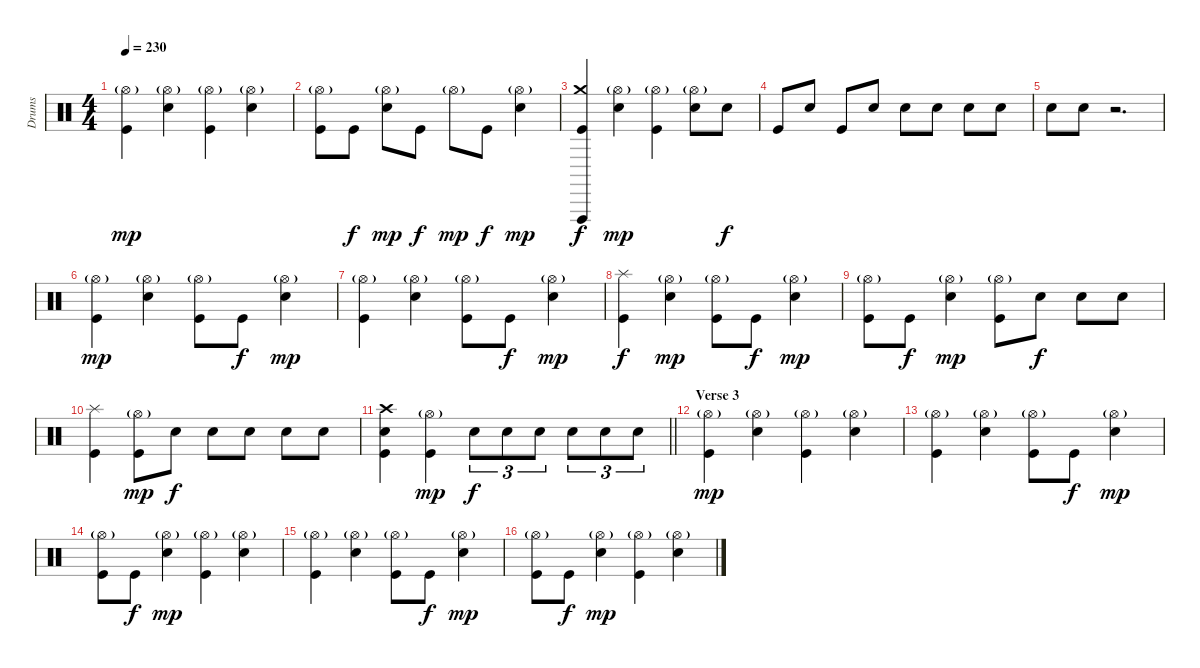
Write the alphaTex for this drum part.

\track ("Drums" "Drums") {instrument percussion}
\staff {score}
\articulation defaults
\ts (4 4)
\tempo 230
\clef neutral
\ks c
("Hi-Hat (open)"{g} "Kick (hit)").4{dy mp} ("Hi-Hat (open)"{g} "Snare (hit) 2").4 ("Hi-Hat (open)"{g} "Kick (hit)").4 ("Hi-Hat (open)"{g} "Snare (hit) 2").4 |
("Hi-Hat (open)"{g} "Kick (hit)").8 "Kick (hit)".8{dy f} ("Hi-Hat (open)"{g} "Snare (hit) 2").8{dy mp} "Kick (hit)".8{dy f} "Hi-Hat (open)"{g}.8{dy mp} "Kick (hit)".8{dy f} ("Hi-Hat (open)"{g} "Snare (hit) 2").4{dy mp} |
("Crash medium (hit)" "Vibraslap (hit)" "Kick (hit)").4{dy f} ("Hi-Hat (open)"{g} "Snare (hit) 2").4{dy mp} ("Hi-Hat (open)"{g} "Kick (hit)").4 ("Hi-Hat (open)"{g} "Snare (hit) 2").8 "Snare (hit) 2".8{dy f} |
"Kick (hit)".8 "Snare (hit) 2".8 "Kick (hit)".8 "Snare (hit) 2".8 "Snare (hit) 2".8 "Snare (hit) 2".8 "Snare (hit) 2".8 "Snare (hit) 2".8 |
"Snare (hit) 2".8 "Snare (hit) 2".8 r.2{d} |
("Hi-Hat (open)"{g} "Kick (hit)").4{dy mp} ("Hi-Hat (open)"{g} "Snare (hit) 2").4 ("Hi-Hat (open)"{g} "Kick (hit)").8 "Kick (hit)".8{dy f} ("Hi-Hat (open)"{g} "Snare (hit) 2").4{dy mp} |
("Hi-Hat (open)"{g} "Kick (hit)").4 ("Hi-Hat (open)"{g} "Snare (hit) 2").4 ("Hi-Hat (open)"{g} "Kick (hit)").8 "Kick (hit)".8{dy f} ("Hi-Hat (open)"{g} "Snare (hit) 2").4{dy mp} |
("Splash (hit)" "Kick (hit)").4{dy f} ("Hi-Hat (open)"{g} "Snare (hit) 2").4{dy mp} ("Hi-Hat (open)"{g} "Kick (hit)").8 "Kick (hit)".8{dy f} ("Hi-Hat (open)"{g} "Snare (hit) 2").4{dy mp} |
("Hi-Hat (open)"{g} "Kick (hit)").8 "Kick (hit)".8{dy f} ("Hi-Hat (open)"{g} "Snare (hit) 2").4{dy mp} ("Hi-Hat (open)"{g} "Kick (hit)").8 "Snare (hit) 2".8{dy f} "Snare (hit) 2".8 "Snare (hit) 2".8 |
("Splash (hit)" "Kick (hit)").4 ("Hi-Hat (open)"{g} "Kick (hit)").8{dy mp} "Snare (hit) 2".8{dy f} "Snare (hit) 2".8 "Snare (hit) 2".8 "Snare (hit) 2".8 "Snare (hit) 2".8 |
\barLineRight lightlight
("Crash high (hit)" "Snare (hit) 2" "Kick (hit)").4 ("Hi-Hat (open)"{g} "Kick (hit)").4{dy mp} "Snare (hit) 2".8{tu (3 2) dy f} "Snare (hit) 2".8{tu (3 2)} "Snare (hit) 2".8{tu (3 2)} "Snare (hit) 2".8{tu (3 2)} "Snare (hit) 2".8{tu (3 2)} "Snare (hit) 2".8{tu (3 2)} |
\section ("" "Verse 3")
("Hi-Hat (open)"{g} "Kick (hit)").4{dy mp} ("Hi-Hat (open)"{g} "Snare (hit) 2").4 ("Hi-Hat (open)"{g} "Kick (hit)").4 ("Hi-Hat (open)"{g} "Snare (hit) 2").4 |
("Hi-Hat (open)"{g} "Kick (hit)").4 ("Hi-Hat (open)"{g} "Snare (hit) 2").4 ("Hi-Hat (open)"{g} "Kick (hit)").8 "Kick (hit)".8{dy f} ("Hi-Hat (open)"{g} "Snare (hit) 2").4{dy mp} |
("Hi-Hat (open)"{g} "Kick (hit)").8 "Kick (hit)".8{dy f} ("Hi-Hat (open)"{g} "Snare (hit) 2").4{dy mp} ("Hi-Hat (open)"{g} "Kick (hit)").4 ("Hi-Hat (open)"{g} "Snare (hit) 2").4 |
("Hi-Hat (open)"{g} "Kick (hit)").4 ("Hi-Hat (open)"{g} "Snare (hit) 2").4 ("Hi-Hat (open)"{g} "Kick (hit)").8 "Kick (hit)".8{dy f} ("Hi-Hat (open)"{g} "Snare (hit) 2").4{dy mp} |
("Hi-Hat (open)"{g} "Kick (hit)").8 "Kick (hit)".8{dy f} ("Hi-Hat (open)"{g} "Snare (hit) 2").4{dy mp} ("Hi-Hat (open)"{g} "Kick (hit)").4 ("Hi-Hat (open)"{g} "Snare (hit) 2").4
